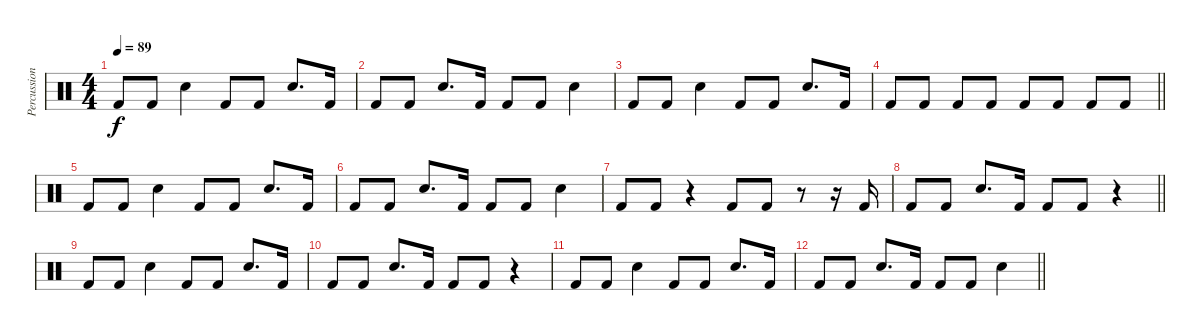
\track ("Percussion" "Percussion") {instrument percussion}
\staff {score}
\articulation defaults
\ts (4 4)
\tempo 89
\clef neutral
\ks c "Kick (hit) 2".8{dy f} "Kick (hit) 2".8 "Snare (hit) 2".4 "Kick (hit) 2".8 "Kick (hit) 2".8 "Snare (hit) 2".8{d} "Kick (hit) 2".16
|
"Kick (hit) 2".8 "Kick (hit) 2".8 "Snare (hit) 2".8{d} "Kick (hit) 2".16 "Kick (hit) 2".8 "Kick (hit) 2".8 "Snare (hit) 2".4 |
"Kick (hit) 2".8 "Kick (hit) 2".8 "Snare (hit) 2".4 "Kick (hit) 2".8 "Kick (hit) 2".8 "Snare (hit) 2".8{d} "Kick (hit) 2".16 |
\barLineRight lightlight "Kick (hit) 2".8 "Kick (hit) 2".8 "Kick (hit) 2".8 "Kick (hit) 2".8 "Kick (hit) 2".8 "Kick (hit) 2".8 "Kick (hit) 2".8 "Kick (hit) 2".8
|
"Kick (hit) 2".8 "Kick (hit) 2".8 "Snare (hit) 2".4 "Kick (hit) 2".8 "Kick (hit) 2".8 "Snare (hit) 2".8{d} "Kick (hit) 2".16 |
"Kick (hit) 2".8 "Kick (hit) 2".8 "Snare (hit) 2".8{d} "Kick (hit) 2".16 "Kick (hit) 2".8 "Kick (hit) 2".8 "Snare (hit) 2".4 |
"Kick (hit) 2".8 "Kick (hit) 2".8 r.4 "Kick (hit) 2".8 "Kick (hit) 2".8 r.8 r.16 "Kick (hit) 2".16 |
\barLineRight lightlight "Kick (hit) 2".8 "Kick (hit) 2".8 "Snare (hit) 2".8{d} "Kick (hit) 2".16 "Kick (hit) 2".8 "Kick (hit) 2".8
r.4 |
"Kick (hit) 2".8 "Kick (hit) 2".8 "Snare (hit) 2".4 "Kick (hit) 2".8 "Kick (hit) 2".8 "Snare (hit) 2".8{d} "Kick (hit) 2".16 |
"Kick (hit) 2".8 "Kick (hit) 2".8 "Snare (hit) 2".8{d} "Kick (hit) 2".16 "Kick (hit) 2".8 "Kick (hit) 2".8 r.4 |
"Kick (hit) 2".8 "Kick (hit) 2".8 "Snare (hit) 2".4 "Kick (hit) 2".8 "Kick (hit) 2".8 "Snare (hit) 2".8{d} "Kick (hit) 2".16 |
\barLineRight lightlight "Kick (hit) 2".8 "Kick (hit) 2".8 "Snare (hit) 2".8{d} "Kick (hit) 2".16 "Kick (hit) 2".8 "Kick (hit) 2".8 "Snare (hit) 2".4
